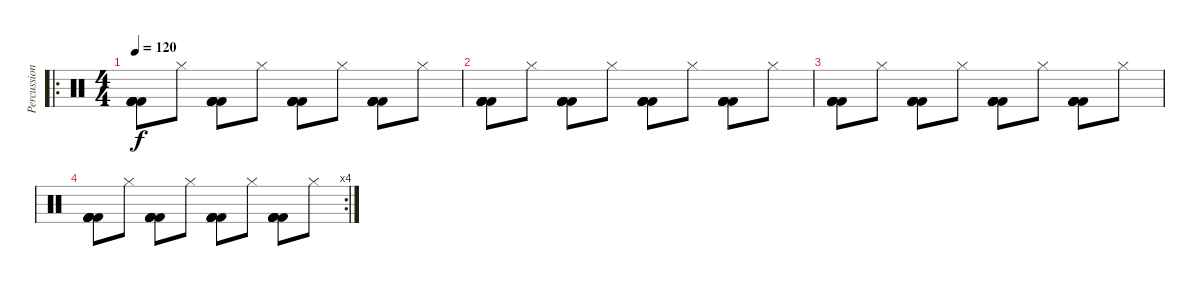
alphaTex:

\track ("Percussion" "Percussion") {instrument percussion}
\staff {score}
\articulation defaults
\ro
\ts (4 4)
\tempo 120
\clef neutral
\ks c
("Kick (hit) 2" "Kick (hit) 2" "Kick (hit) 2" "Kick (hit) 2" "Kick (hit) 2").8{dy f} "Hi-Hat (closed)".8 ("Kick (hit) 2" "Kick (hit) 2" "Kick (hit) 2" "Kick (hit) 2" "Kick (hit) 2").8 "Hi-Hat (closed)".8 ("Kick (hit) 2" "Kick (hit) 2" "Kick (hit) 2" "Kick (hit) 2" "Kick (hit) 2").8 "Hi-Hat (closed)".8 ("Kick (hit) 2" "Kick (hit) 2" "Kick (hit) 2" "Kick (hit) 2" "Kick (hit) 2").8 "Hi-Hat (closed)".8 |
("Kick (hit) 2" "Kick (hit) 2" "Kick (hit) 2" "Kick (hit) 2" "Kick (hit) 2").8 "Hi-Hat (closed)".8 ("Kick (hit) 2" "Kick (hit) 2" "Kick (hit) 2" "Kick (hit) 2" "Kick (hit) 2").8 "Hi-Hat (closed)".8 ("Kick (hit) 2" "Kick (hit) 2" "Kick (hit) 2" "Kick (hit) 2" "Kick (hit) 2").8 "Hi-Hat (closed)".8 ("Kick (hit) 2" "Kick (hit) 2" "Kick (hit) 2" "Kick (hit) 2" "Kick (hit) 2").8 "Hi-Hat (closed)".8 |
("Kick (hit) 2" "Kick (hit) 2" "Kick (hit) 2" "Kick (hit) 2" "Kick (hit) 2").8 "Hi-Hat (closed)".8 ("Kick (hit) 2" "Kick (hit) 2" "Kick (hit) 2" "Kick (hit) 2" "Kick (hit) 2").8 "Hi-Hat (closed)".8 ("Kick (hit) 2" "Kick (hit) 2" "Kick (hit) 2" "Kick (hit) 2" "Kick (hit) 2").8 "Hi-Hat (closed)".8 ("Kick (hit) 2" "Kick (hit) 2" "Kick (hit) 2" "Kick (hit) 2" "Kick (hit) 2").8 "Hi-Hat (closed)".8 |
\rc 4
("Kick (hit) 2" "Kick (hit) 2" "Kick (hit) 2" "Kick (hit) 2" "Kick (hit) 2").8 "Hi-Hat (closed)".8 ("Kick (hit) 2" "Kick (hit) 2" "Kick (hit) 2" "Kick (hit) 2" "Kick (hit) 2").8 "Hi-Hat (closed)".8 ("Kick (hit) 2" "Kick (hit) 2" "Kick (hit) 2" "Kick (hit) 2" "Kick (hit) 2").8 "Hi-Hat (closed)".8 ("Kick (hit) 2" "Kick (hit) 2" "Kick (hit) 2" "Kick (hit) 2" "Kick (hit) 2").8 "Hi-Hat (closed)".8
